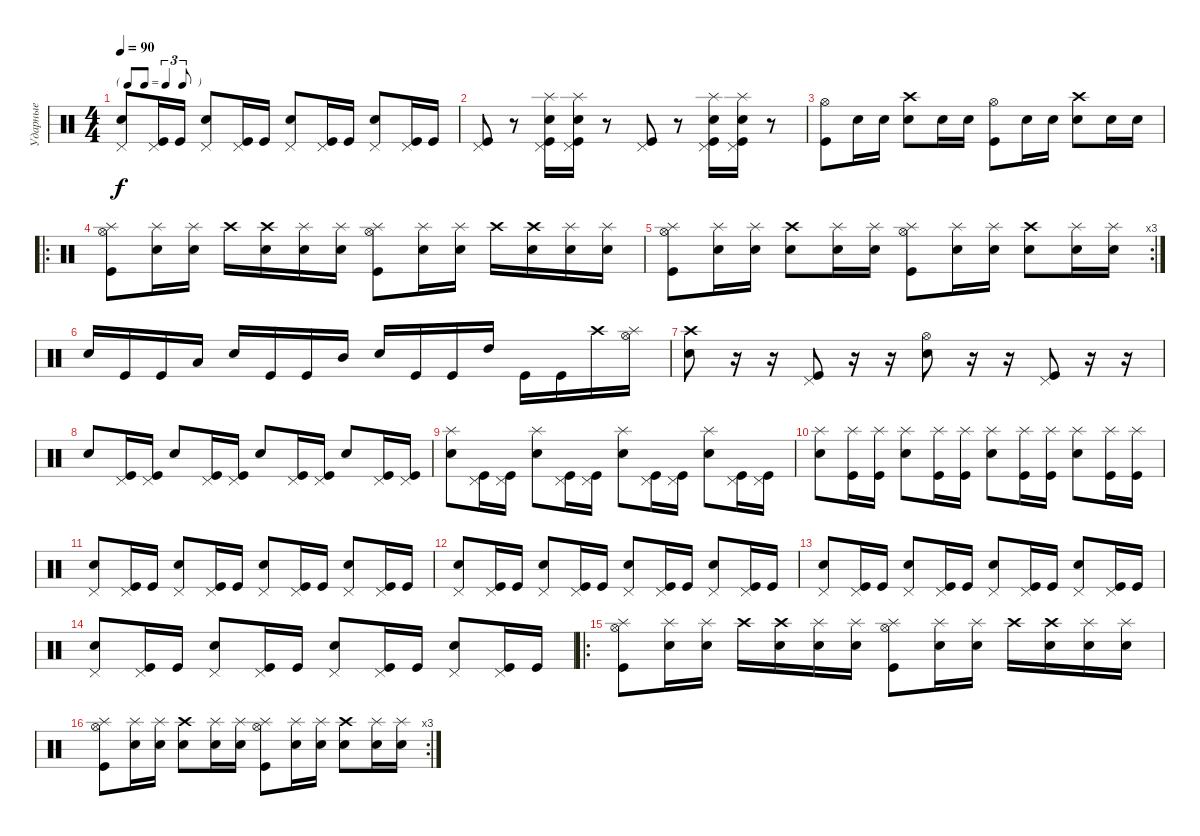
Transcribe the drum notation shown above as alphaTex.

\track ("Ударные" "Ударные") {instrument percussion}
\staff {score}
\articulation defaults
\ts (4 4)
\tf triplet8th
\tempo 90
\clef neutral
\ks c
("Pedal Hi-Hat (hit)" "Electric Snare (hit)").8{dy f} ("Pedal Hi-Hat (hit)" "Kick (hit)").16 "Kick (hit)".16 ("Pedal Hi-Hat (hit)" "Electric Snare (hit)").8 ("Pedal Hi-Hat (hit)" "Kick (hit)").16 "Kick (hit)".16 ("Pedal Hi-Hat (hit)" "Electric Snare (hit)").8 ("Pedal Hi-Hat (hit)" "Kick (hit)").16 "Kick (hit)".16 ("Pedal Hi-Hat (hit)" "Electric Snare (hit)").8 ("Pedal Hi-Hat (hit)" "Kick (hit)").16 "Kick (hit)".16 |
("Kick (hit)" "Pedal Hi-Hat (hit)").8 r.8 ("Electric Snare (hit)" "Splash (hit)" "Kick (hit)" "Pedal Hi-Hat (hit)").16 ("Electric Snare (hit)" "Splash (hit)" "Kick (hit)" "Pedal Hi-Hat (hit)").16 r.8 ("Kick (hit)" "Pedal Hi-Hat (hit)").8 r.8 ("Electric Snare (hit)" "Splash (hit)" "Kick (hit)" "Pedal Hi-Hat (hit)").16 ("Electric Snare (hit)" "Splash (hit)" "Kick (hit)" "Pedal Hi-Hat (hit)").16 r.8 |
("Kick (hit)" "Hi-Hat (open)").8 "Electric Snare (hit)".16 "Electric Snare (hit)".16 ("Electric Snare (hit)" "Crash high (hit)").8 "Electric Snare (hit)".16 "Electric Snare (hit)".16 ("Kick (hit)" "Hi-Hat (open)").8 "Electric Snare (hit)".16 "Electric Snare (hit)".16 ("Electric Snare (hit)" "Crash high (hit)").8 "Electric Snare (hit)".16 "Electric Snare (hit)".16 |
\ro
("Kick (hit)" "Hi-Hat (open)" "Splash (hit)").8 ("Electric Snare (hit)" "Splash (hit)").16 ("Electric Snare (hit)" "Splash (hit)").16 "Crash high (hit)".16 ("Electric Snare (hit)" "Crash high (hit)").16 ("Electric Snare (hit)" "Splash (hit)").16 ("Electric Snare (hit)" "Splash (hit)").16 ("Kick (hit)" "Hi-Hat (open)" "Splash (hit)").8 ("Electric Snare (hit)" "Splash (hit)").16 ("Electric Snare (hit)" "Splash (hit)").16 "Crash high (hit)".16 ("Electric Snare (hit)" "Crash high (hit)").16 ("Electric Snare (hit)" "Splash (hit)").16 ("Electric Snare (hit)" "Splash (hit)").16 |
\rc 3
("Kick (hit)" "Hi-Hat (open)" "Splash (hit)").8 ("Electric Snare (hit)" "Splash (hit)").16 ("Electric Snare (hit)" "Splash (hit)").16 ("Electric Snare (hit)" "Crash high (hit)").8 ("Electric Snare (hit)" "Splash (hit)").16 ("Electric Snare (hit)" "Splash (hit)").16 ("Kick (hit)" "Hi-Hat (open)" "Splash (hit)").8 ("Electric Snare (hit)" "Splash (hit)").16 ("Electric Snare (hit)" "Splash (hit)").16 ("Electric Snare (hit)" "Crash high (hit)").8 ("Electric Snare (hit)" "Splash (hit)").16 ("Electric Snare (hit)" "Splash (hit)").16 |
"Electric Snare (hit)".16 "Kick (hit)".16 "Kick (hit)".16 "Low Tom (hit)".16 "Electric Snare (hit)".16 "Kick (hit)".16 "Kick (hit)".16 "Mid Tom (hit)".16 "Electric Snare (hit)".16 "Kick (hit)".16 "Kick (hit)".16 "High Tom (hit)".16 "Kick (hit)".16 "Kick (hit)".16 "Crash high (hit)".16 ("Splash (hit)" "Hi-Hat (open)").16 |
("Electric Snare (hit)" "Crash high (hit)").8 r.16 r.16 ("Pedal Hi-Hat (hit)" "Kick (hit)").8 r.16 r.16 ("Electric Snare (hit)" "Hi-Hat (open)").8 r.16 r.16 ("Pedal Hi-Hat (hit)" "Kick (hit)").8 r.16 r.16 |
"Electric Snare (hit)".8 ("Pedal Hi-Hat (hit)" "Kick (hit)").16 ("Pedal Hi-Hat (hit)" "Kick (hit)").16 "Electric Snare (hit)".8 ("Pedal Hi-Hat (hit)" "Kick (hit)").16 ("Pedal Hi-Hat (hit)" "Kick (hit)").16 "Electric Snare (hit)".8 ("Pedal Hi-Hat (hit)" "Kick (hit)").16 ("Pedal Hi-Hat (hit)" "Kick (hit)").16 "Electric Snare (hit)".8 ("Pedal Hi-Hat (hit)" "Kick (hit)").16 ("Pedal Hi-Hat (hit)" "Kick (hit)").16 |
("Splash (hit)" "Electric Snare (hit)").8 ("Pedal Hi-Hat (hit)" "Kick (hit)").16 ("Pedal Hi-Hat (hit)" "Kick (hit)").16 ("Splash (hit)" "Electric Snare (hit)").8 ("Pedal Hi-Hat (hit)" "Kick (hit)").16 ("Pedal Hi-Hat (hit)" "Kick (hit)").16 ("Splash (hit)" "Electric Snare (hit)").8 ("Pedal Hi-Hat (hit)" "Kick (hit)").16 ("Pedal Hi-Hat (hit)" "Kick (hit)").16 ("Splash (hit)" "Electric Snare (hit)").8 ("Pedal Hi-Hat (hit)" "Kick (hit)").16 ("Pedal Hi-Hat (hit)" "Kick (hit)").16 |
("Splash (hit)" "Electric Snare (hit)").8 ("Splash (hit)" "Kick (hit)").16 ("Splash (hit)" "Kick (hit)").16 ("Splash (hit)" "Electric Snare (hit)").8 ("Splash (hit)" "Kick (hit)").16 ("Splash (hit)" "Kick (hit)").16 ("Splash (hit)" "Electric Snare (hit)").8 ("Splash (hit)" "Kick (hit)").16 ("Splash (hit)" "Kick (hit)").16 ("Splash (hit)" "Electric Snare (hit)").8 ("Splash (hit)" "Kick (hit)").16 ("Splash (hit)" "Kick (hit)").16 |
("Pedal Hi-Hat (hit)" "Electric Snare (hit)").8 ("Pedal Hi-Hat (hit)" "Kick (hit)").16 "Kick (hit)".16 ("Pedal Hi-Hat (hit)" "Electric Snare (hit)").8 ("Pedal Hi-Hat (hit)" "Kick (hit)").16 "Kick (hit)".16 ("Pedal Hi-Hat (hit)" "Electric Snare (hit)").8 ("Pedal Hi-Hat (hit)" "Kick (hit)").16 "Kick (hit)".16 ("Pedal Hi-Hat (hit)" "Electric Snare (hit)").8 ("Pedal Hi-Hat (hit)" "Kick (hit)").16 "Kick (hit)".16 |
("Pedal Hi-Hat (hit)" "Electric Snare (hit)").8 ("Pedal Hi-Hat (hit)" "Kick (hit)").16 "Kick (hit)".16 ("Pedal Hi-Hat (hit)" "Electric Snare (hit)").8 ("Pedal Hi-Hat (hit)" "Kick (hit)").16 "Kick (hit)".16 ("Pedal Hi-Hat (hit)" "Electric Snare (hit)").8 ("Pedal Hi-Hat (hit)" "Kick (hit)").16 "Kick (hit)".16 ("Pedal Hi-Hat (hit)" "Electric Snare (hit)").8 ("Pedal Hi-Hat (hit)" "Kick (hit)").16 "Kick (hit)".16 |
("Pedal Hi-Hat (hit)" "Electric Snare (hit)").8 ("Pedal Hi-Hat (hit)" "Kick (hit)").16 "Kick (hit)".16 ("Pedal Hi-Hat (hit)" "Electric Snare (hit)").8 ("Pedal Hi-Hat (hit)" "Kick (hit)").16 "Kick (hit)".16 ("Pedal Hi-Hat (hit)" "Electric Snare (hit)").8 ("Pedal Hi-Hat (hit)" "Kick (hit)").16 "Kick (hit)".16 ("Pedal Hi-Hat (hit)" "Electric Snare (hit)").8 ("Pedal Hi-Hat (hit)" "Kick (hit)").16 "Kick (hit)".16 |
("Pedal Hi-Hat (hit)" "Electric Snare (hit)").8 ("Pedal Hi-Hat (hit)" "Kick (hit)").16 "Kick (hit)".16 ("Pedal Hi-Hat (hit)" "Electric Snare (hit)").8 ("Pedal Hi-Hat (hit)" "Kick (hit)").16 "Kick (hit)".16 ("Pedal Hi-Hat (hit)" "Electric Snare (hit)").8 ("Pedal Hi-Hat (hit)" "Kick (hit)").16 "Kick (hit)".16 ("Pedal Hi-Hat (hit)" "Electric Snare (hit)").8 ("Pedal Hi-Hat (hit)" "Kick (hit)").16 "Kick (hit)".16 |
\ro
("Kick (hit)" "Hi-Hat (open)" "Splash (hit)").8 ("Electric Snare (hit)" "Splash (hit)").16 ("Electric Snare (hit)" "Splash (hit)").16 "Crash high (hit)".16 ("Electric Snare (hit)" "Crash high (hit)").16 ("Electric Snare (hit)" "Splash (hit)").16 ("Electric Snare (hit)" "Splash (hit)").16 ("Kick (hit)" "Hi-Hat (open)" "Splash (hit)").8 ("Electric Snare (hit)" "Splash (hit)").16 ("Electric Snare (hit)" "Splash (hit)").16 "Crash high (hit)".16 ("Electric Snare (hit)" "Crash high (hit)").16 ("Electric Snare (hit)" "Splash (hit)").16 ("Electric Snare (hit)" "Splash (hit)").16 |
\rc 3
("Kick (hit)" "Hi-Hat (open)" "Splash (hit)").8 ("Electric Snare (hit)" "Splash (hit)").16 ("Electric Snare (hit)" "Splash (hit)").16 ("Electric Snare (hit)" "Crash high (hit)").8 ("Electric Snare (hit)" "Splash (hit)").16 ("Electric Snare (hit)" "Splash (hit)").16 ("Kick (hit)" "Hi-Hat (open)" "Splash (hit)").8 ("Electric Snare (hit)" "Splash (hit)").16 ("Electric Snare (hit)" "Splash (hit)").16 ("Electric Snare (hit)" "Crash high (hit)").8 ("Electric Snare (hit)" "Splash (hit)").16 ("Electric Snare (hit)" "Splash (hit)").16
